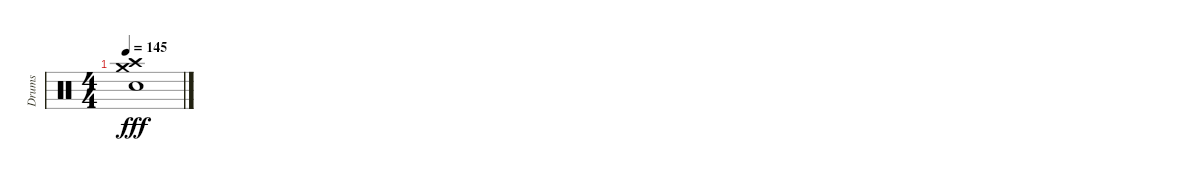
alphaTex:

\track ("Drums" "Drums") {instrument percussion}
\staff {score}
\articulation defaults
\ts (4 4)
\tempo 145
\clef neutral
\ks c
("Crash high (hit)" "Crash medium (hit)" "Electric Snare (hit)").1{dy fff}
